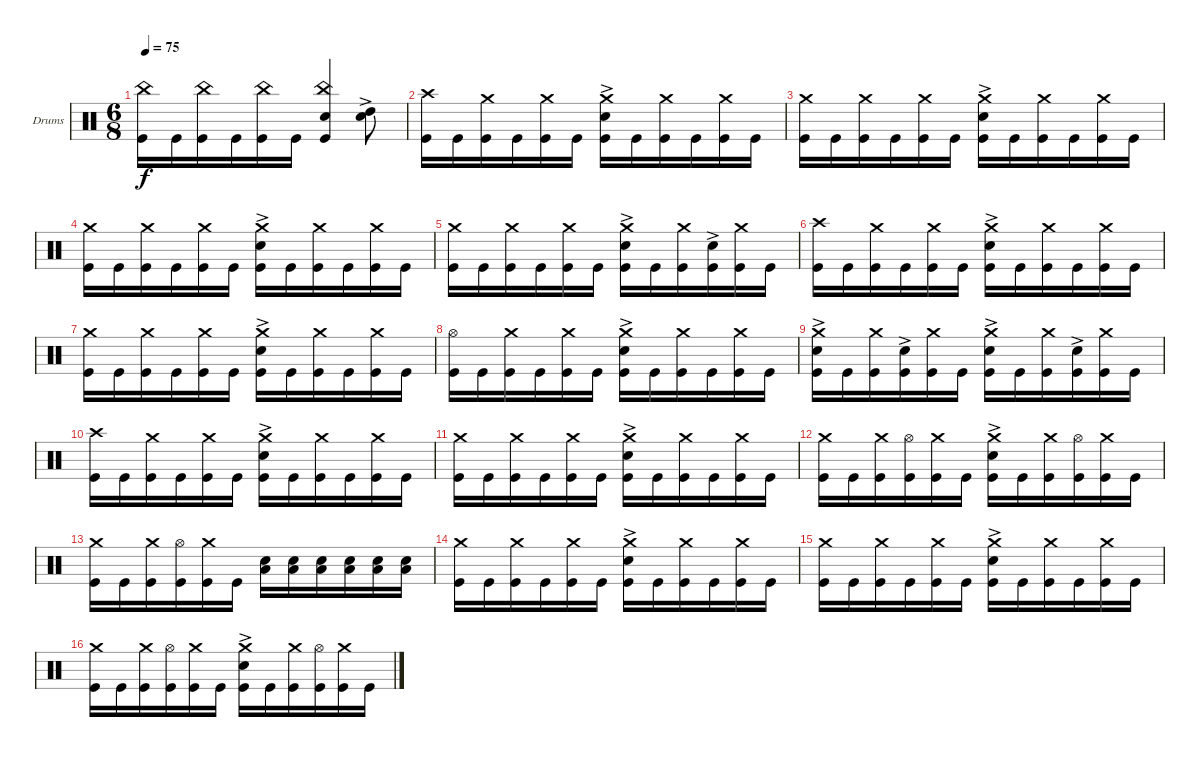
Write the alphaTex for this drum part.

\bracketExtendMode groupsimilarinstruments
\firstSystemTrackNameOrientation horizontal
\otherSystemsTrackNameOrientation horizontal
\track ("Drumkit" "Drums") {instrument percussion}
\staff {score}
\articulation defaults
\ts (6 8)
\tempo 75
\clef neutral
\ks c
("Kick (hit)" "China (hit)").16{dy f} "Kick (hit)".16 ("Kick (hit)" "China (hit)").16 "Kick (hit)".16 ("Kick (hit)" "China (hit)").16 "Kick (hit)".16 ("Kick (hit)" "China (hit)" "Snare (hit) 2").4 ("Snare (hit) 2"{ac} "High Tom (hit)").8 |
("Kick (hit)" "Crash high (hit)").16 "Kick (hit)".16 ("Kick (hit)" "Crash medium (hit)").16 "Kick (hit)".16 ("Kick (hit)" "Crash medium (hit)").16 "Kick (hit)".16 ("Kick (hit)" "Crash medium (hit)" "Snare (hit) 2"{ac}).16 "Kick (hit)".16 ("Kick (hit)" "Crash medium (hit)").16 "Kick (hit)".16 ("Kick (hit)" "Crash medium (hit)").16 "Kick (hit)".16 |
("Kick (hit)" "Crash medium (hit)").16 "Kick (hit)".16 ("Kick (hit)" "Crash medium (hit)").16 "Kick (hit)".16 ("Kick (hit)" "Crash medium (hit)").16 "Kick (hit)".16 ("Kick (hit)" "Crash medium (hit)" "Snare (hit) 2"{ac}).16 "Kick (hit)".16 ("Kick (hit)" "Crash medium (hit)").16 "Kick (hit)".16 ("Kick (hit)" "Crash medium (hit)").16 "Kick (hit)".16 |
("Kick (hit)" "Crash medium (hit)").16 "Kick (hit)".16 ("Kick (hit)" "Crash medium (hit)").16 "Kick (hit)".16 ("Kick (hit)" "Crash medium (hit)").16 "Kick (hit)".16 ("Kick (hit)" "Crash medium (hit)" "Snare (hit) 2"{ac}).16 "Kick (hit)".16 ("Kick (hit)" "Crash medium (hit)").16 "Kick (hit)".16 ("Kick (hit)" "Crash medium (hit)").16 "Kick (hit)".16 |
("Kick (hit)" "Crash medium (hit)").16 "Kick (hit)".16 ("Kick (hit)" "Crash medium (hit)").16 "Kick (hit)".16 ("Kick (hit)" "Crash medium (hit)").16 "Kick (hit)".16 ("Kick (hit)" "Crash medium (hit)" "Snare (hit) 2"{ac}).16 "Kick (hit)".16 ("Kick (hit)" "Crash medium (hit)").16 ("Kick (hit)" "Snare (hit) 2"{ac}).16 ("Kick (hit)" "Crash medium (hit)").16 "Kick (hit)".16 |
("Kick (hit)" "Crash high (hit)").16 "Kick (hit)".16 ("Kick (hit)" "Crash medium (hit)").16 "Kick (hit)".16 ("Kick (hit)" "Crash medium (hit)").16 "Kick (hit)".16 ("Kick (hit)" "Crash medium (hit)" "Snare (hit) 2"{ac}).16 "Kick (hit)".16 ("Kick (hit)" "Crash medium (hit)").16 "Kick (hit)".16 ("Kick (hit)" "Crash medium (hit)").16 "Kick (hit)".16 |
("Kick (hit)" "Crash medium (hit)").16 "Kick (hit)".16 ("Kick (hit)" "Crash medium (hit)").16 "Kick (hit)".16 ("Kick (hit)" "Crash medium (hit)").16 "Kick (hit)".16 ("Kick (hit)" "Crash medium (hit)" "Snare (hit) 2"{ac}).16 "Kick (hit)".16 ("Kick (hit)" "Crash medium (hit)").16 "Kick (hit)".16 ("Kick (hit)" "Crash medium (hit)").16 "Kick (hit)".16 |
("Kick (hit)" "Hi-Hat (open)").16 "Kick (hit)".16 ("Kick (hit)" "Crash medium (hit)").16 "Kick (hit)".16 ("Kick (hit)" "Crash medium (hit)").16 "Kick (hit)".16 ("Kick (hit)" "Crash medium (hit)" "Snare (hit) 2"{ac}).16 "Kick (hit)".16 ("Kick (hit)" "Crash medium (hit)").16 "Kick (hit)".16 ("Kick (hit)" "Crash medium (hit)").16 "Kick (hit)".16 |
("Kick (hit)" "Crash medium (hit)" "Snare (hit) 2"{ac}).16 "Kick (hit)".16 ("Kick (hit)" "Crash medium (hit)").16 ("Kick (hit)" "Snare (hit) 2"{ac}).16 ("Kick (hit)" "Crash medium (hit)").16 "Kick (hit)".16 ("Kick (hit)" "Crash medium (hit)" "Snare (hit) 2"{ac}).16 "Kick (hit)".16 ("Kick (hit)" "Crash medium (hit)").16 ("Kick (hit)" "Snare (hit) 2"{ac}).16 ("Kick (hit)" "Crash medium (hit)").16 "Kick (hit)".16 |
("Kick (hit)" "Crash high (hit)").16 "Kick (hit)".16 ("Kick (hit)" "Crash medium (hit)").16 "Kick (hit)".16 ("Kick (hit)" "Crash medium (hit)").16 "Kick (hit)".16 ("Kick (hit)" "Crash medium (hit)" "Snare (hit) 2"{ac}).16 "Kick (hit)".16 ("Kick (hit)" "Crash medium (hit)").16 "Kick (hit)".16 ("Kick (hit)" "Crash medium (hit)").16 "Kick (hit)".16 |
("Kick (hit)" "Crash medium (hit)").16 "Kick (hit)".16 ("Kick (hit)" "Crash medium (hit)").16 "Kick (hit)".16 ("Kick (hit)" "Crash medium (hit)").16 "Kick (hit)".16 ("Kick (hit)" "Crash medium (hit)" "Snare (hit) 2"{ac}).16 "Kick (hit)".16 ("Kick (hit)" "Crash medium (hit)").16 "Kick (hit)".16 ("Kick (hit)" "Crash medium (hit)").16 "Kick (hit)".16 |
("Kick (hit)" "Crash medium (hit)").16 "Kick (hit)".16 ("Kick (hit)" "Crash medium (hit)").16 ("Kick (hit)" "Hi-Hat (open)").16 ("Kick (hit)" "Crash medium (hit)").16 "Kick (hit)".16 ("Kick (hit)" "Crash medium (hit)" "Snare (hit) 2"{ac}).16 "Kick (hit)".16 ("Kick (hit)" "Crash medium (hit)").16 ("Kick (hit)" "Hi-Hat (open)").16 ("Kick (hit)" "Crash medium (hit)").16 "Kick (hit)".16 |
("Kick (hit)" "Crash medium (hit)").16 "Kick (hit)".16 ("Kick (hit)" "Crash medium (hit)").16 ("Kick (hit)" "Hi-Hat (open)").16 ("Kick (hit)" "Crash medium (hit)").16 "Kick (hit)".16 ("Snare (hit) 2" "Low Tom (hit)").16 ("Snare (hit) 2" "Low Tom (hit)").16 ("Snare (hit) 2" "Low Tom (hit)").16 ("Snare (hit) 2" "Low Tom (hit)").16 ("Snare (hit) 2" "Low Tom (hit)").16 ("Snare (hit) 2" "Low Tom (hit)").16 |
("Kick (hit)" "Crash medium (hit)").16 "Kick (hit)".16 ("Kick (hit)" "Crash medium (hit)").16 "Kick (hit)".16 ("Kick (hit)" "Crash medium (hit)").16 "Kick (hit)".16 ("Kick (hit)" "Crash medium (hit)" "Snare (hit) 2"{ac}).16 "Kick (hit)".16 ("Kick (hit)" "Crash medium (hit)").16 "Kick (hit)".16 ("Kick (hit)" "Crash medium (hit)").16 "Kick (hit)".16 |
("Kick (hit)" "Crash medium (hit)").16 "Kick (hit)".16 ("Kick (hit)" "Crash medium (hit)").16 "Kick (hit)".16 ("Kick (hit)" "Crash medium (hit)").16 "Kick (hit)".16 ("Kick (hit)" "Crash medium (hit)" "Snare (hit) 2"{ac}).16 "Kick (hit)".16 ("Kick (hit)" "Crash medium (hit)").16 "Kick (hit)".16 ("Kick (hit)" "Crash medium (hit)").16 "Kick (hit)".16 |
("Kick (hit)" "Crash medium (hit)").16 "Kick (hit)".16 ("Kick (hit)" "Crash medium (hit)").16 ("Kick (hit)" "Hi-Hat (open)").16 ("Kick (hit)" "Crash medium (hit)").16 "Kick (hit)".16 ("Kick (hit)" "Crash medium (hit)" "Snare (hit) 2"{ac}).16 "Kick (hit)".16 ("Kick (hit)" "Crash medium (hit)").16 ("Kick (hit)" "Hi-Hat (open)").16 ("Kick (hit)" "Crash medium (hit)").16 "Kick (hit)".16
